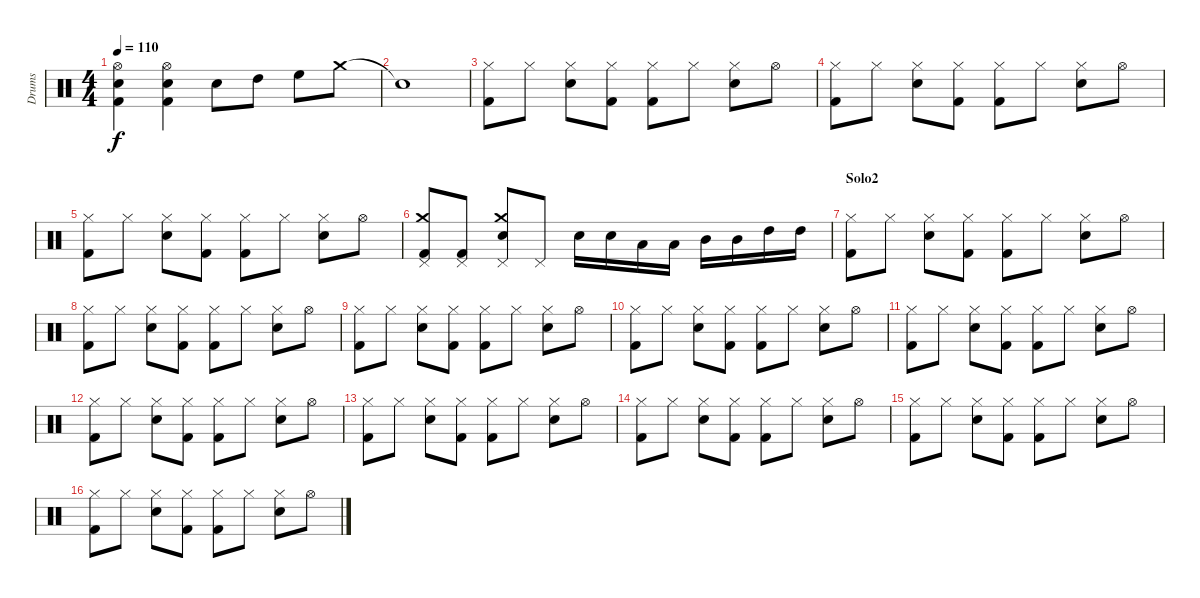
\track ("Drums" "Drums") {instrument percussion}
\staff {score}
\articulation defaults
\ts (4 4)
\tempo 110
\clef neutral
\ks c
("Snare (hit) 2" "Kick (hit) 2" "Hi-Hat (open)").4{dy f} ("Snare (hit) 2" "Kick (hit) 2" "Hi-Hat (open)").4 "Electric Snare (hit)".8 "High Tom (hit)".8 "High Floor Tom (hit)".8 "Crash medium (hit)".8 |
"Snare (hit)"{t}.1 |
("Hi-Hat (closed)" "Kick (hit) 2").8 "Hi-Hat (closed)".8 ("Hi-Hat (closed)" "Snare (hit) 2").8 ("Hi-Hat (closed)" "Kick (hit) 2").8 ("Hi-Hat (closed)" "Kick (hit) 2").8 "Hi-Hat (closed)".8 ("Hi-Hat (closed)" "Snare (hit) 2").8 "Hi-Hat (open)".8 |
("Hi-Hat (closed)" "Kick (hit) 2").8 "Hi-Hat (closed)".8 ("Hi-Hat (closed)" "Snare (hit) 2").8 ("Hi-Hat (closed)" "Kick (hit) 2").8 ("Hi-Hat (closed)" "Kick (hit) 2").8 "Hi-Hat (closed)".8 ("Hi-Hat (closed)" "Snare (hit) 2").8 "Hi-Hat (open)".8 |
("Hi-Hat (closed)" "Kick (hit) 2").8 "Hi-Hat (closed)".8 ("Hi-Hat (closed)" "Snare (hit) 2").8 ("Hi-Hat (closed)" "Kick (hit) 2").8 ("Hi-Hat (closed)" "Kick (hit) 2").8 "Hi-Hat (closed)".8 ("Hi-Hat (closed)" "Snare (hit) 2").8 "Hi-Hat (open)".8 |
("Pedal Hi-Hat (hit)" "Kick (hit) 2" "Crash medium (hit)").8 ("Pedal Hi-Hat (hit)" "Kick (hit) 2").8 ("Pedal Hi-Hat (hit)" "Snare (hit) 2" "Crash medium (hit)").8 "Pedal Hi-Hat (hit)".8 "Snare (hit) 2".16 "Snare (hit) 2".16 "Low Tom (hit)".16 "Low Tom (hit)".16 "Mid Tom (hit)".16 "Mid Tom (hit)".16 "High Tom (hit)".16 "High Tom (hit)".16 |
\section ("" "Solo2")
("Hi-Hat (closed)" "Kick (hit) 2").8 "Hi-Hat (closed)".8 ("Hi-Hat (closed)" "Snare (hit) 2").8 ("Hi-Hat (closed)" "Kick (hit) 2").8 ("Hi-Hat (closed)" "Kick (hit) 2").8 "Hi-Hat (closed)".8 ("Hi-Hat (closed)" "Snare (hit) 2").8 "Hi-Hat (open)".8 |
("Hi-Hat (closed)" "Kick (hit) 2").8 "Hi-Hat (closed)".8 ("Hi-Hat (closed)" "Snare (hit) 2").8 ("Hi-Hat (closed)" "Kick (hit) 2").8 ("Hi-Hat (closed)" "Kick (hit) 2").8 "Hi-Hat (closed)".8 ("Hi-Hat (closed)" "Snare (hit) 2").8 "Hi-Hat (open)".8 |
("Hi-Hat (closed)" "Kick (hit) 2").8 "Hi-Hat (closed)".8 ("Hi-Hat (closed)" "Snare (hit) 2").8 ("Hi-Hat (closed)" "Kick (hit) 2").8 ("Hi-Hat (closed)" "Kick (hit) 2").8 "Hi-Hat (closed)".8 ("Hi-Hat (closed)" "Snare (hit) 2").8 "Hi-Hat (open)".8 |
("Hi-Hat (closed)" "Kick (hit) 2").8 "Hi-Hat (closed)".8 ("Hi-Hat (closed)" "Snare (hit) 2").8 ("Hi-Hat (closed)" "Kick (hit) 2").8 ("Hi-Hat (closed)" "Kick (hit) 2").8 "Hi-Hat (closed)".8 ("Hi-Hat (closed)" "Snare (hit) 2").8 "Hi-Hat (open)".8 |
("Hi-Hat (closed)" "Kick (hit) 2").8 "Hi-Hat (closed)".8 ("Hi-Hat (closed)" "Snare (hit) 2").8 ("Hi-Hat (closed)" "Kick (hit) 2").8 ("Hi-Hat (closed)" "Kick (hit) 2").8 "Hi-Hat (closed)".8 ("Hi-Hat (closed)" "Snare (hit) 2").8 "Hi-Hat (open)".8 |
("Hi-Hat (closed)" "Kick (hit) 2").8 "Hi-Hat (closed)".8 ("Hi-Hat (closed)" "Snare (hit) 2").8 ("Hi-Hat (closed)" "Kick (hit) 2").8 ("Hi-Hat (closed)" "Kick (hit) 2").8 "Hi-Hat (closed)".8 ("Hi-Hat (closed)" "Snare (hit) 2").8 "Hi-Hat (open)".8 |
("Hi-Hat (closed)" "Kick (hit) 2").8 "Hi-Hat (closed)".8 ("Hi-Hat (closed)" "Snare (hit) 2").8 ("Hi-Hat (closed)" "Kick (hit) 2").8 ("Hi-Hat (closed)" "Kick (hit) 2").8 "Hi-Hat (closed)".8 ("Hi-Hat (closed)" "Snare (hit) 2").8 "Hi-Hat (open)".8 |
("Hi-Hat (closed)" "Kick (hit) 2").8 "Hi-Hat (closed)".8 ("Hi-Hat (closed)" "Snare (hit) 2").8 ("Hi-Hat (closed)" "Kick (hit) 2").8 ("Hi-Hat (closed)" "Kick (hit) 2").8 "Hi-Hat (closed)".8 ("Hi-Hat (closed)" "Snare (hit) 2").8 "Hi-Hat (open)".8 |
("Hi-Hat (closed)" "Kick (hit) 2").8 "Hi-Hat (closed)".8 ("Hi-Hat (closed)" "Snare (hit) 2").8 ("Hi-Hat (closed)" "Kick (hit) 2").8 ("Hi-Hat (closed)" "Kick (hit) 2").8 "Hi-Hat (closed)".8 ("Hi-Hat (closed)" "Snare (hit) 2").8 "Hi-Hat (open)".8 |
("Hi-Hat (closed)" "Kick (hit) 2").8 "Hi-Hat (closed)".8 ("Hi-Hat (closed)" "Snare (hit) 2").8 ("Hi-Hat (closed)" "Kick (hit) 2").8 ("Hi-Hat (closed)" "Kick (hit) 2").8 "Hi-Hat (closed)".8 ("Hi-Hat (closed)" "Snare (hit) 2").8 "Hi-Hat (open)".8
